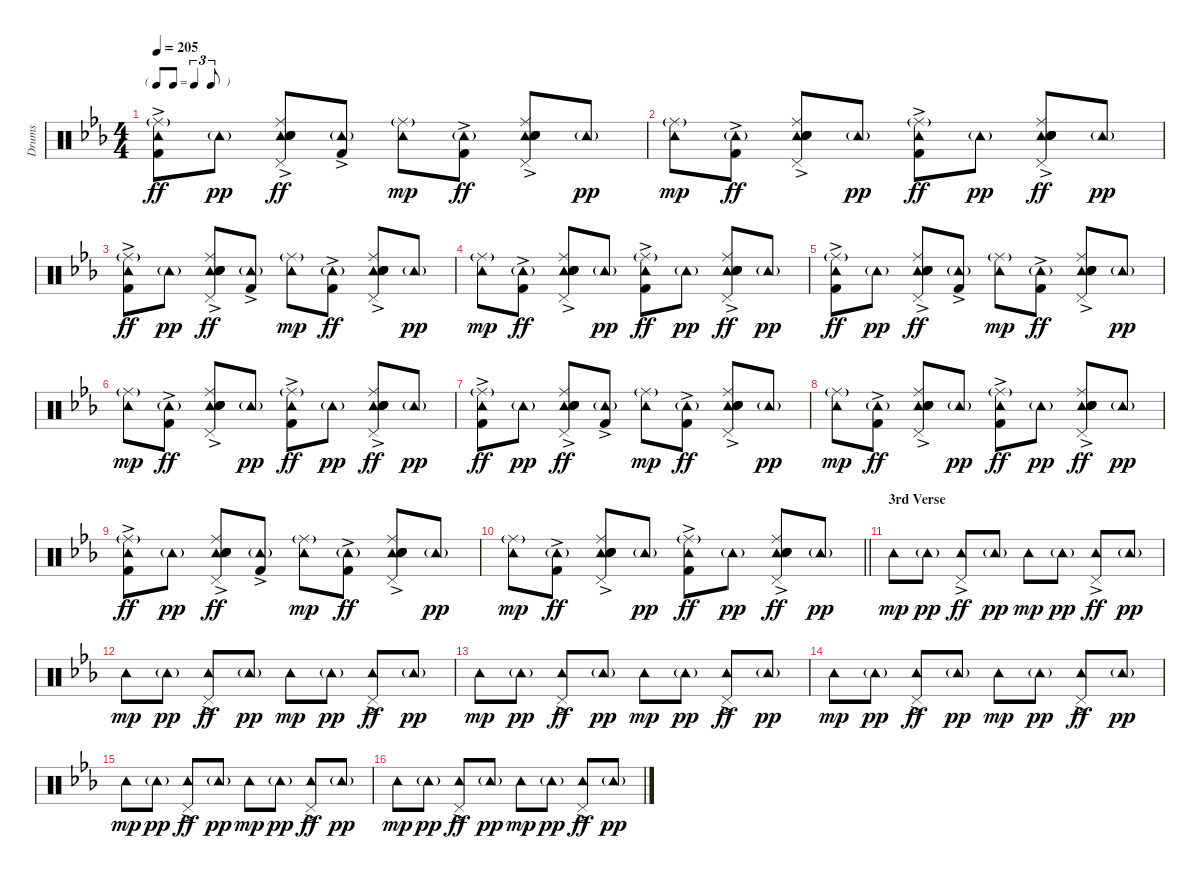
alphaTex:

\track ("Drums" "Drums") {instrument percussion}
\staff {score}
\articulation defaults
\ts (4 4)
\tf triplet8th
\tempo 205
\clef neutral
\ks eb
("Ride (middle)"{g} "Tambourine (hit)" "Kick (hit) 2"{ac}).8{dy ff} "Tambourine (hit)"{g}.8{dy pp} ("Ride (middle)" "Tambourine (hit)"{ac} "Hand Clap (hit)" "Electric Snare (hit)"{ac} "Snare (hit) 2" "Pedal Hi-Hat (hit)").8{dy ff} ("Tambourine (hit)"{g} "Kick (hit) 2"{ac}).8 ("Ride (middle)"{g} "Tambourine (hit)").8{dy mp} ("Tambourine (hit)"{g} "Kick (hit) 2"{ac}).8{dy ff} ("Ride (middle)" "Tambourine (hit)"{ac} "Hand Clap (hit)" "Electric Snare (hit)"{ac} "Snare (hit) 2" "Pedal Hi-Hat (hit)").8 "Tambourine (hit)"{g}.8{dy pp} |
("Ride (middle)"{g} "Tambourine (hit)").8{dy mp} ("Tambourine (hit)"{g} "Kick (hit) 2"{ac}).8{dy ff} ("Ride (middle)" "Tambourine (hit)"{ac} "Hand Clap (hit)" "Electric Snare (hit)"{ac} "Snare (hit) 2" "Pedal Hi-Hat (hit)").8 "Tambourine (hit)"{g}.8{dy pp} ("Ride (middle)"{g} "Tambourine (hit)" "Kick (hit) 2"{ac}).8{dy ff} "Tambourine (hit)"{g}.8{dy pp} ("Ride (middle)" "Tambourine (hit)"{ac} "Hand Clap (hit)" "Electric Snare (hit)"{ac} "Snare (hit) 2" "Pedal Hi-Hat (hit)").8{dy ff} "Tambourine (hit)"{g}.8{dy pp} |
("Ride (middle)"{g} "Tambourine (hit)" "Kick (hit) 2"{ac}).8{dy ff} "Tambourine (hit)"{g}.8{dy pp} ("Ride (middle)" "Tambourine (hit)"{ac} "Hand Clap (hit)" "Electric Snare (hit)"{ac} "Snare (hit) 2" "Pedal Hi-Hat (hit)").8{dy ff} ("Tambourine (hit)"{g} "Kick (hit) 2"{ac}).8 ("Ride (middle)"{g} "Tambourine (hit)").8{dy mp} ("Tambourine (hit)"{g} "Kick (hit) 2"{ac}).8{dy ff} ("Ride (middle)" "Tambourine (hit)"{ac} "Hand Clap (hit)" "Electric Snare (hit)"{ac} "Snare (hit) 2" "Pedal Hi-Hat (hit)").8 "Tambourine (hit)"{g}.8{dy pp} |
("Ride (middle)"{g} "Tambourine (hit)").8{dy mp} ("Tambourine (hit)"{g} "Kick (hit) 2"{ac}).8{dy ff} ("Ride (middle)" "Tambourine (hit)"{ac} "Hand Clap (hit)" "Electric Snare (hit)"{ac} "Snare (hit) 2" "Pedal Hi-Hat (hit)").8 "Tambourine (hit)"{g}.8{dy pp} ("Ride (middle)"{g} "Tambourine (hit)" "Kick (hit) 2"{ac}).8{dy ff} "Tambourine (hit)"{g}.8{dy pp} ("Ride (middle)" "Tambourine (hit)"{ac} "Hand Clap (hit)" "Electric Snare (hit)"{ac} "Snare (hit) 2" "Pedal Hi-Hat (hit)").8{dy ff} "Tambourine (hit)"{g}.8{dy pp} |
("Ride (middle)"{g} "Tambourine (hit)" "Kick (hit) 2"{ac}).8{dy ff} "Tambourine (hit)"{g}.8{dy pp} ("Ride (middle)" "Tambourine (hit)"{ac} "Hand Clap (hit)" "Electric Snare (hit)"{ac} "Snare (hit) 2" "Pedal Hi-Hat (hit)").8{dy ff} ("Tambourine (hit)"{g} "Kick (hit) 2"{ac}).8 ("Ride (middle)"{g} "Tambourine (hit)").8{dy mp} ("Tambourine (hit)"{g} "Kick (hit) 2"{ac}).8{dy ff} ("Ride (middle)" "Tambourine (hit)"{ac} "Hand Clap (hit)" "Electric Snare (hit)"{ac} "Snare (hit) 2" "Pedal Hi-Hat (hit)").8 "Tambourine (hit)"{g}.8{dy pp} |
("Ride (middle)"{g} "Tambourine (hit)").8{dy mp} ("Tambourine (hit)"{g} "Kick (hit) 2"{ac}).8{dy ff} ("Ride (middle)" "Tambourine (hit)"{ac} "Hand Clap (hit)" "Electric Snare (hit)"{ac} "Snare (hit) 2" "Pedal Hi-Hat (hit)").8 "Tambourine (hit)"{g}.8{dy pp} ("Ride (middle)"{g} "Tambourine (hit)" "Kick (hit) 2"{ac}).8{dy ff} "Tambourine (hit)"{g}.8{dy pp} ("Ride (middle)" "Tambourine (hit)"{ac} "Hand Clap (hit)" "Electric Snare (hit)"{ac} "Snare (hit) 2" "Pedal Hi-Hat (hit)").8{dy ff} "Tambourine (hit)"{g}.8{dy pp} |
("Ride (middle)"{g} "Tambourine (hit)" "Kick (hit) 2"{ac}).8{dy ff} "Tambourine (hit)"{g}.8{dy pp} ("Ride (middle)" "Tambourine (hit)"{ac} "Hand Clap (hit)" "Electric Snare (hit)"{ac} "Snare (hit) 2" "Pedal Hi-Hat (hit)").8{dy ff} ("Tambourine (hit)"{g} "Kick (hit) 2"{ac}).8 ("Ride (middle)"{g} "Tambourine (hit)").8{dy mp} ("Tambourine (hit)"{g} "Kick (hit) 2"{ac}).8{dy ff} ("Ride (middle)" "Tambourine (hit)"{ac} "Hand Clap (hit)" "Electric Snare (hit)"{ac} "Snare (hit) 2" "Pedal Hi-Hat (hit)").8 "Tambourine (hit)"{g}.8{dy pp} |
("Ride (middle)"{g} "Tambourine (hit)").8{dy mp} ("Tambourine (hit)"{g} "Kick (hit) 2"{ac}).8{dy ff} ("Ride (middle)" "Tambourine (hit)"{ac} "Hand Clap (hit)" "Electric Snare (hit)"{ac} "Snare (hit) 2" "Pedal Hi-Hat (hit)").8 "Tambourine (hit)"{g}.8{dy pp} ("Ride (middle)"{g} "Tambourine (hit)" "Kick (hit) 2"{ac}).8{dy ff} "Tambourine (hit)"{g}.8{dy pp} ("Ride (middle)" "Tambourine (hit)"{ac} "Hand Clap (hit)" "Electric Snare (hit)"{ac} "Snare (hit) 2" "Pedal Hi-Hat (hit)").8{dy ff} "Tambourine (hit)"{g}.8{dy pp} |
("Ride (middle)"{g} "Tambourine (hit)" "Kick (hit) 2"{ac}).8{dy ff} "Tambourine (hit)"{g}.8{dy pp} ("Ride (middle)" "Tambourine (hit)"{ac} "Hand Clap (hit)" "Electric Snare (hit)"{ac} "Snare (hit) 2" "Pedal Hi-Hat (hit)").8{dy ff} ("Tambourine (hit)"{g} "Kick (hit) 2"{ac}).8 ("Ride (middle)"{g} "Tambourine (hit)").8{dy mp} ("Tambourine (hit)"{g} "Kick (hit) 2"{ac}).8{dy ff} ("Ride (middle)" "Tambourine (hit)"{ac} "Hand Clap (hit)" "Electric Snare (hit)"{ac} "Snare (hit) 2" "Pedal Hi-Hat (hit)").8 "Tambourine (hit)"{g}.8{dy pp} |
\barLineRight lightlight
("Ride (middle)"{g} "Tambourine (hit)").8{dy mp} ("Tambourine (hit)"{g} "Kick (hit) 2"{ac}).8{dy ff} ("Ride (middle)" "Tambourine (hit)"{ac} "Hand Clap (hit)" "Electric Snare (hit)"{ac} "Snare (hit) 2" "Pedal Hi-Hat (hit)").8 "Tambourine (hit)"{g}.8{dy pp} ("Ride (middle)"{g} "Tambourine (hit)" "Kick (hit) 2"{ac}).8{dy ff} "Tambourine (hit)"{g}.8{dy pp} ("Ride (middle)" "Tambourine (hit)"{ac} "Hand Clap (hit)" "Electric Snare (hit)"{ac} "Snare (hit) 2" "Pedal Hi-Hat (hit)").8{dy ff} "Tambourine (hit)"{g}.8{dy pp} |
\section ("" "3rd Verse")
"Tambourine (hit)".8{dy mp} "Tambourine (hit)"{g}.8{dy pp} ("Pedal Hi-Hat (hit)" "Tambourine (hit)"{ac}).8{dy ff} "Tambourine (hit)"{g}.8{dy pp} "Tambourine (hit)".8{dy mp} "Tambourine (hit)"{g}.8{dy pp} ("Pedal Hi-Hat (hit)" "Tambourine (hit)"{ac}).8{dy ff} "Tambourine (hit)"{g}.8{dy pp} |
"Tambourine (hit)".8{dy mp} "Tambourine (hit)"{g}.8{dy pp} ("Pedal Hi-Hat (hit)" "Tambourine (hit)"{ac}).8{dy ff} "Tambourine (hit)"{g}.8{dy pp} "Tambourine (hit)".8{dy mp} "Tambourine (hit)"{g}.8{dy pp} ("Pedal Hi-Hat (hit)" "Tambourine (hit)"{ac}).8{dy ff} "Tambourine (hit)"{g}.8{dy pp} |
"Tambourine (hit)".8{dy mp} "Tambourine (hit)"{g}.8{dy pp} ("Pedal Hi-Hat (hit)" "Tambourine (hit)"{ac}).8{dy ff} "Tambourine (hit)"{g}.8{dy pp} "Tambourine (hit)".8{dy mp} "Tambourine (hit)"{g}.8{dy pp} ("Pedal Hi-Hat (hit)" "Tambourine (hit)"{ac}).8{dy ff} "Tambourine (hit)"{g}.8{dy pp} |
"Tambourine (hit)".8{dy mp} "Tambourine (hit)"{g}.8{dy pp} ("Pedal Hi-Hat (hit)" "Tambourine (hit)"{ac}).8{dy ff} "Tambourine (hit)"{g}.8{dy pp} "Tambourine (hit)".8{dy mp} "Tambourine (hit)"{g}.8{dy pp} ("Pedal Hi-Hat (hit)" "Tambourine (hit)"{ac}).8{dy ff} "Tambourine (hit)"{g}.8{dy pp} |
"Tambourine (hit)".8{dy mp} "Tambourine (hit)"{g}.8{dy pp} ("Pedal Hi-Hat (hit)" "Tambourine (hit)"{ac}).8{dy ff} "Tambourine (hit)"{g}.8{dy pp} "Tambourine (hit)".8{dy mp} "Tambourine (hit)"{g}.8{dy pp} ("Pedal Hi-Hat (hit)" "Tambourine (hit)"{ac}).8{dy ff} "Tambourine (hit)"{g}.8{dy pp} |
"Tambourine (hit)".8{dy mp} "Tambourine (hit)"{g}.8{dy pp} ("Pedal Hi-Hat (hit)" "Tambourine (hit)"{ac}).8{dy ff} "Tambourine (hit)"{g}.8{dy pp} "Tambourine (hit)".8{dy mp} "Tambourine (hit)"{g}.8{dy pp} ("Pedal Hi-Hat (hit)" "Tambourine (hit)"{ac}).8{dy ff} "Tambourine (hit)"{g}.8{dy pp}
